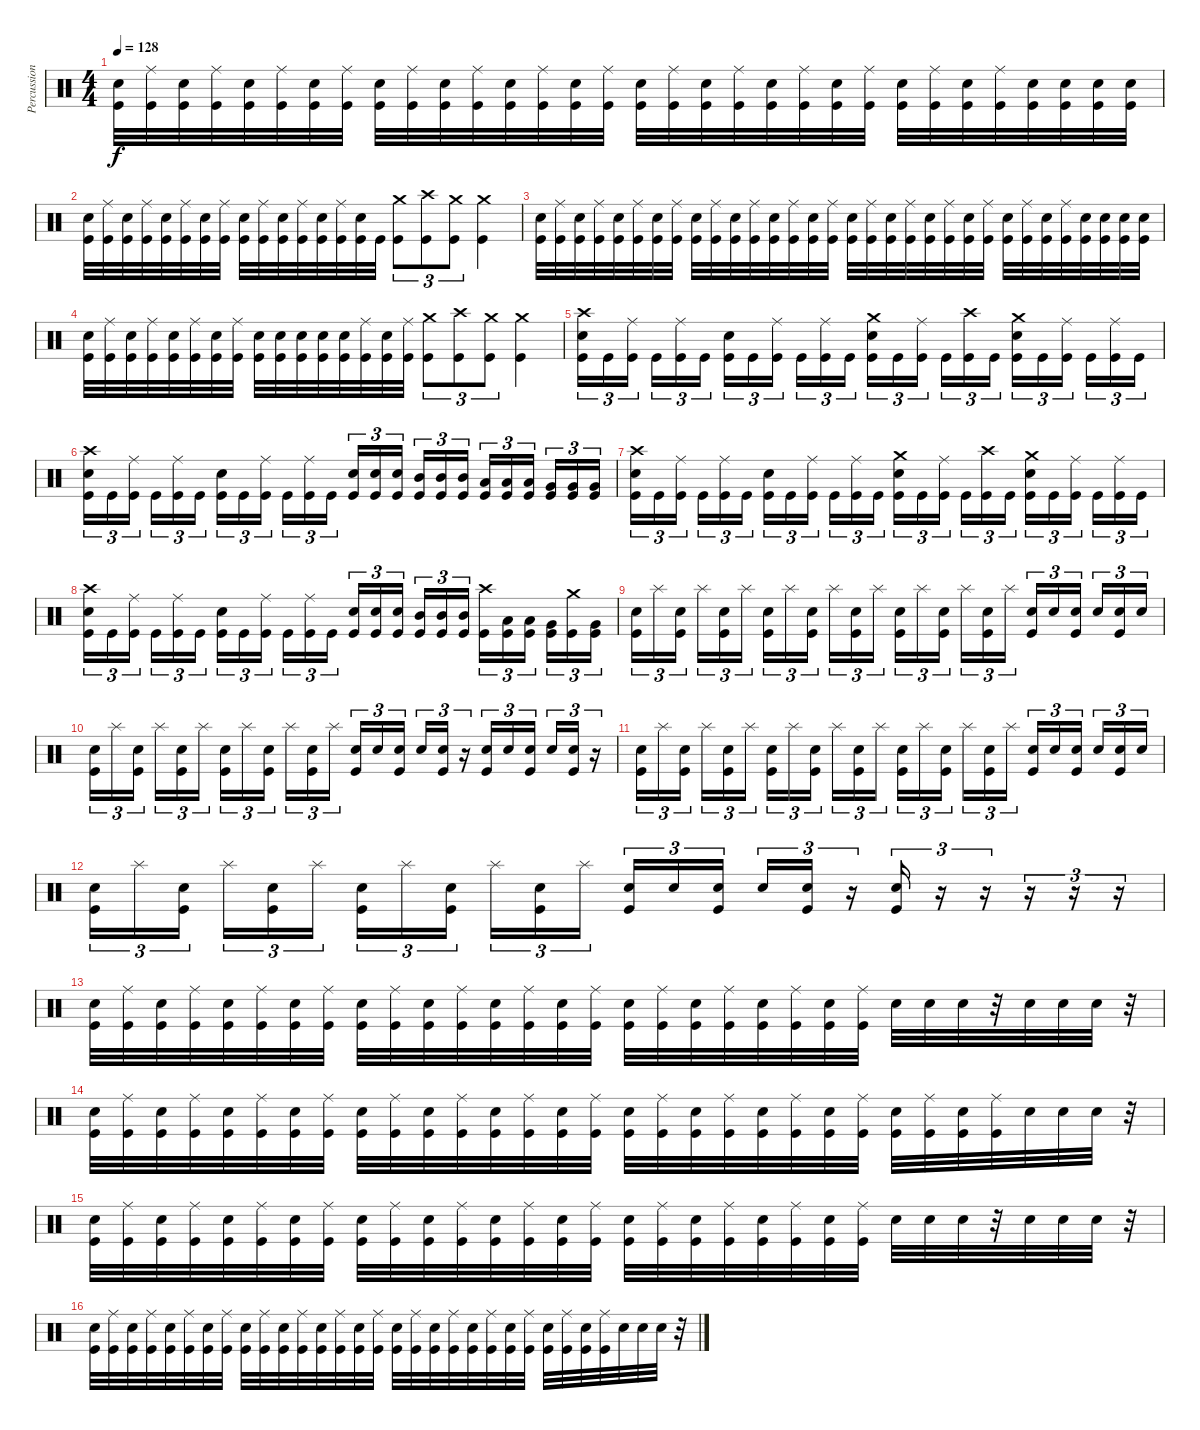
\track ("Percussion" "Percussion") {instrument percussion}
\staff {score}
\articulation defaults
\ts (4 4)
\tempo 128
\clef neutral
\ks c
("Electric Snare (hit)" "Kick (hit)").32{dy f} ("Ride (middle)" "Kick (hit)").32 ("Electric Snare (hit)" "Kick (hit)").32 ("Ride (middle)" "Kick (hit)").32 ("Electric Snare (hit)" "Kick (hit)").32 ("Ride (middle)" "Kick (hit)").32 ("Electric Snare (hit)" "Kick (hit)").32 ("Ride (middle)" "Kick (hit)").32 ("Electric Snare (hit)" "Kick (hit)").32 ("Ride (middle)" "Kick (hit)").32 ("Electric Snare (hit)" "Kick (hit)").32 ("Ride (middle)" "Kick (hit)").32 ("Electric Snare (hit)" "Kick (hit)").32 ("Ride (middle)" "Kick (hit)").32 ("Electric Snare (hit)" "Kick (hit)").32 ("Ride (middle)" "Kick (hit)").32 ("Electric Snare (hit)" "Kick (hit)").32 ("Ride (middle)" "Kick (hit)").32 ("Electric Snare (hit)" "Kick (hit)").32 ("Ride (middle)" "Kick (hit)").32 ("Electric Snare (hit)" "Kick (hit)").32 ("Ride (middle)" "Kick (hit)").32 ("Electric Snare (hit)" "Kick (hit)").32 ("Ride (middle)" "Kick (hit)").32 ("Electric Snare (hit)" "Kick (hit)").32 ("Ride (middle)" "Kick (hit)").32 ("Electric Snare (hit)" "Kick (hit)").32 ("Ride (middle)" "Kick (hit)").32 ("Electric Snare (hit)" "Kick (hit)").32 ("Electric Snare (hit)" "Kick (hit)").32 ("Electric Snare (hit)" "Kick (hit)").32 ("Electric Snare (hit)" "Kick (hit)").32 |
("Electric Snare (hit)" "Kick (hit)").32 ("Ride (middle)" "Kick (hit)").32 ("Electric Snare (hit)" "Kick (hit)").32 ("Ride (middle)" "Kick (hit)").32 ("Electric Snare (hit)" "Kick (hit)").32 ("Ride (middle)" "Kick (hit)").32 ("Electric Snare (hit)" "Kick (hit)").32 ("Ride (middle)" "Kick (hit)").32 ("Electric Snare (hit)" "Kick (hit)").32 ("Ride (middle)" "Kick (hit)").32 ("Electric Snare (hit)" "Kick (hit)").32 ("Ride (middle)" "Kick (hit)").32 ("Electric Snare (hit)" "Kick (hit)").32 ("Ride (middle)" "Kick (hit)").32 ("Electric Snare (hit)" "Kick (hit)").32 "Kick (hit)".32 ("Crash medium (hit)" "Kick (hit)").8{tu (3 2)} ("Crash high (hit)" "Kick (hit)").8{tu (3 2)} ("Crash medium (hit)" "Kick (hit)").8{tu (3 2)} ("Crash medium (hit)" "Kick (hit)").4 |
("Electric Snare (hit)" "Kick (hit)").32 ("Ride (middle)" "Kick (hit)").32 ("Electric Snare (hit)" "Kick (hit)").32 ("Ride (middle)" "Kick (hit)").32 ("Electric Snare (hit)" "Kick (hit)").32 ("Ride (middle)" "Kick (hit)").32 ("Electric Snare (hit)" "Kick (hit)").32 ("Ride (middle)" "Kick (hit)").32 ("Electric Snare (hit)" "Kick (hit)").32 ("Ride (middle)" "Kick (hit)").32 ("Electric Snare (hit)" "Kick (hit)").32 ("Ride (middle)" "Kick (hit)").32 ("Electric Snare (hit)" "Kick (hit)").32 ("Ride (middle)" "Kick (hit)").32 ("Electric Snare (hit)" "Kick (hit)").32 ("Ride (middle)" "Kick (hit)").32 ("Electric Snare (hit)" "Kick (hit)").32 ("Ride (middle)" "Kick (hit)").32 ("Electric Snare (hit)" "Kick (hit)").32 ("Ride (middle)" "Kick (hit)").32 ("Electric Snare (hit)" "Kick (hit)").32 ("Ride (middle)" "Kick (hit)").32 ("Electric Snare (hit)" "Kick (hit)").32 ("Ride (middle)" "Kick (hit)").32 ("Electric Snare (hit)" "Kick (hit)").32 ("Ride (middle)" "Kick (hit)").32 ("Electric Snare (hit)" "Kick (hit)").32 ("Ride (middle)" "Kick (hit)").32 ("Electric Snare (hit)" "Kick (hit)").32 ("Electric Snare (hit)" "Kick (hit)").32 ("Electric Snare (hit)" "Kick (hit)").32 ("Electric Snare (hit)" "Kick (hit)").32 |
("Electric Snare (hit)" "Kick (hit)").32 ("Ride (middle)" "Kick (hit)").32 ("Electric Snare (hit)" "Kick (hit)").32 ("Ride (middle)" "Kick (hit)").32 ("Electric Snare (hit)" "Kick (hit)").32 ("Ride (middle)" "Kick (hit)").32 ("Electric Snare (hit)" "Kick (hit)").32 ("Ride (middle)" "Kick (hit)").32 ("Electric Snare (hit)" "Kick (hit)").32 ("Electric Snare (hit)" "Kick (hit)").32 ("Electric Snare (hit)" "Kick (hit)").32 ("Electric Snare (hit)" "Kick (hit)").32 ("Electric Snare (hit)" "Kick (hit)").32 ("Ride (middle)" "Kick (hit)").32 ("Electric Snare (hit)" "Kick (hit)").32 ("Ride (middle)" "Kick (hit)").32 ("Crash medium (hit)" "Kick (hit)").8{tu (3 2)} ("Crash high (hit)" "Kick (hit)").8{tu (3 2)} ("Crash medium (hit)" "Kick (hit)").8{tu (3 2)} ("Crash medium (hit)" "Kick (hit)").4 |
("Crash high (hit)" "Electric Snare (hit)" "Kick (hit)").16{tu (3 2)} "Kick (hit)".16{tu (3 2)} ("Ride (middle)" "Kick (hit)").16{tu (3 2)} "Kick (hit)".16{tu (3 2)} ("Ride (middle)" "Kick (hit)").16{tu (3 2)} "Kick (hit)".16{tu (3 2)} ("Electric Snare (hit)" "Kick (hit)").16{tu (3 2)} "Kick (hit)".16{tu (3 2)} ("Ride (middle)" "Kick (hit)").16{tu (3 2)} "Kick (hit)".16{tu (3 2)} ("Ride (middle)" "Kick (hit)").16{tu (3 2)} "Kick (hit)".16{tu (3 2)} ("Crash medium (hit)" "Electric Snare (hit)" "Kick (hit)").16{tu (3 2)} "Kick (hit)".16{tu (3 2)} ("Ride (middle)" "Kick (hit)").16{tu (3 2)} "Kick (hit)".16{tu (3 2)} ("Crash high (hit)" "Kick (hit)").16{tu (3 2)} "Kick (hit)".16{tu (3 2)} ("Crash medium (hit)" "Electric Snare (hit)" "Kick (hit)").16{tu (3 2)} "Kick (hit)".16{tu (3 2)} ("Ride (middle)" "Kick (hit)").16{tu (3 2)} "Kick (hit)".16{tu (3 2)} ("Ride (middle)" "Kick (hit)").16{tu (3 2)} "Kick (hit)".16{tu (3 2)} |
("Crash high (hit)" "Electric Snare (hit)" "Kick (hit)").16{tu (3 2)} "Kick (hit)".16{tu (3 2)} ("Ride (middle)" "Kick (hit)").16{tu (3 2)} "Kick (hit)".16{tu (3 2)} ("Ride (middle)" "Kick (hit)").16{tu (3 2)} "Kick (hit)".16{tu (3 2)} ("Electric Snare (hit)" "Kick (hit)").16{tu (3 2)} "Kick (hit)".16{tu (3 2)} ("Ride (middle)" "Kick (hit)").16{tu (3 2)} "Kick (hit)".16{tu (3 2)} ("Ride (middle)" "Kick (hit)").16{tu (3 2)} "Kick (hit)".16{tu (3 2)} ("Electric Snare (hit)" "Kick (hit)").16{tu (3 2)} ("Electric Snare (hit)" "Kick (hit)").16{tu (3 2)} ("Electric Snare (hit)" "Kick (hit)").16{tu (3 2)} ("Mid Tom (hit)" "Kick (hit)").16{tu (3 2)} ("Mid Tom (hit)" "Kick (hit)").16{tu (3 2)} ("Mid Tom (hit)" "Kick (hit)").16{tu (3 2)} ("Low Tom (hit)" "Kick (hit)").16{tu (3 2)} ("Low Tom (hit)" "Kick (hit)").16{tu (3 2)} ("Low Tom (hit)" "Kick (hit)").16{tu (3 2)} ("Very Low Tom (hit)" "Kick (hit)").16{tu (3 2)} ("Very Low Tom (hit)" "Kick (hit)").16{tu (3 2)} ("Very Low Tom (hit)" "Kick (hit)").16{tu (3 2)} |
("Crash high (hit)" "Electric Snare (hit)" "Kick (hit)").16{tu (3 2)} "Kick (hit)".16{tu (3 2)} ("Ride (middle)" "Kick (hit)").16{tu (3 2)} "Kick (hit)".16{tu (3 2)} ("Ride (middle)" "Kick (hit)").16{tu (3 2)} "Kick (hit)".16{tu (3 2)} ("Electric Snare (hit)" "Kick (hit)").16{tu (3 2)} "Kick (hit)".16{tu (3 2)} ("Ride (middle)" "Kick (hit)").16{tu (3 2)} "Kick (hit)".16{tu (3 2)} ("Ride (middle)" "Kick (hit)").16{tu (3 2)} "Kick (hit)".16{tu (3 2)} ("Crash medium (hit)" "Electric Snare (hit)" "Kick (hit)").16{tu (3 2)} "Kick (hit)".16{tu (3 2)} ("Ride (middle)" "Kick (hit)").16{tu (3 2)} "Kick (hit)".16{tu (3 2)} ("Crash high (hit)" "Kick (hit)").16{tu (3 2)} "Kick (hit)".16{tu (3 2)} ("Crash medium (hit)" "Electric Snare (hit)" "Kick (hit)").16{tu (3 2)} "Kick (hit)".16{tu (3 2)} ("Ride (middle)" "Kick (hit)").16{tu (3 2)} "Kick (hit)".16{tu (3 2)} ("Ride (middle)" "Kick (hit)").16{tu (3 2)} "Kick (hit)".16{tu (3 2)} |
("Crash high (hit)" "Electric Snare (hit)" "Kick (hit)").16{tu (3 2)} "Kick (hit)".16{tu (3 2)} ("Ride (middle)" "Kick (hit)").16{tu (3 2)} "Kick (hit)".16{tu (3 2)} ("Ride (middle)" "Kick (hit)").16{tu (3 2)} "Kick (hit)".16{tu (3 2)} ("Electric Snare (hit)" "Kick (hit)").16{tu (3 2)} "Kick (hit)".16{tu (3 2)} ("Ride (middle)" "Kick (hit)").16{tu (3 2)} "Kick (hit)".16{tu (3 2)} ("Ride (middle)" "Kick (hit)").16{tu (3 2)} "Kick (hit)".16{tu (3 2)} ("Electric Snare (hit)" "Kick (hit)").16{tu (3 2)} ("Electric Snare (hit)" "Kick (hit)").16{tu (3 2)} ("Electric Snare (hit)" "Kick (hit)").16{tu (3 2)} ("Mid Tom (hit)" "Kick (hit)").16{tu (3 2)} ("Mid Tom (hit)" "Kick (hit)").16{tu (3 2)} ("Mid Tom (hit)" "Kick (hit)").16{tu (3 2)} ("Crash high (hit)" "Kick (hit)").16{tu (3 2)} ("Low Tom (hit)" "Kick (hit)").16{tu (3 2)} ("Low Tom (hit)" "Kick (hit)").16{tu (3 2)} ("Very Low Tom (hit)" "Kick (hit)").16{tu (3 2)} ("Crash medium (hit)" "Kick (hit)").16{tu (3 2)} ("Very Low Tom (hit)" "Kick (hit)").16{tu (3 2)} |
("Electric Snare (hit)" "Kick (hit)").16{tu (3 2)} "Splash (hit)".16{tu (3 2)} ("Electric Snare (hit)" "Kick (hit)").16{tu (3 2)} "Splash (hit)".16{tu (3 2)} ("Electric Snare (hit)" "Kick (hit)").16{tu (3 2)} "Splash (hit)".16{tu (3 2)} ("Electric Snare (hit)" "Kick (hit)").16{tu (3 2)} "Splash (hit)".16{tu (3 2)} ("Electric Snare (hit)" "Kick (hit)").16{tu (3 2)} "Splash (hit)".16{tu (3 2)} ("Electric Snare (hit)" "Kick (hit)").16{tu (3 2)} "Splash (hit)".16{tu (3 2)} ("Electric Snare (hit)" "Kick (hit)").16{tu (3 2)} "Splash (hit)".16{tu (3 2)} ("Electric Snare (hit)" "Kick (hit)").16{tu (3 2)} "Splash (hit)".16{tu (3 2)} ("Electric Snare (hit)" "Kick (hit)").16{tu (3 2)} "Splash (hit)".16{tu (3 2)} ("Electric Snare (hit)" "Kick (hit)").16{tu (3 2)} "Electric Snare (hit)".16{tu (3 2)} ("Electric Snare (hit)" "Kick (hit)").16{tu (3 2)} "Electric Snare (hit)".16{tu (3 2)} ("Electric Snare (hit)" "Kick (hit)").16{tu (3 2)} "Electric Snare (hit)".16{tu (3 2)} |
("Electric Snare (hit)" "Kick (hit)").16{tu (3 2)} "Splash (hit)".16{tu (3 2)} ("Electric Snare (hit)" "Kick (hit)").16{tu (3 2)} "Splash (hit)".16{tu (3 2)} ("Electric Snare (hit)" "Kick (hit)").16{tu (3 2)} "Splash (hit)".16{tu (3 2)} ("Electric Snare (hit)" "Kick (hit)").16{tu (3 2)} "Splash (hit)".16{tu (3 2)} ("Electric Snare (hit)" "Kick (hit)").16{tu (3 2)} "Splash (hit)".16{tu (3 2)} ("Electric Snare (hit)" "Kick (hit)").16{tu (3 2)} "Splash (hit)".16{tu (3 2)} ("Electric Snare (hit)" "Kick (hit)").16{tu (3 2)} "Electric Snare (hit)".16{tu (3 2)} ("Electric Snare (hit)" "Kick (hit)").16{tu (3 2)} "Electric Snare (hit)".16{tu (3 2)} ("Electric Snare (hit)" "Kick (hit)").16{tu (3 2)} r.16{tu (3 2)} ("Electric Snare (hit)" "Kick (hit)").16{tu (3 2)} "Electric Snare (hit)".16{tu (3 2)} ("Electric Snare (hit)" "Kick (hit)").16{tu (3 2)} "Electric Snare (hit)".16{tu (3 2)} ("Electric Snare (hit)" "Kick (hit)").16{tu (3 2)} r.16{tu (3 2)} |
("Electric Snare (hit)" "Kick (hit)").16{tu (3 2)} "Splash (hit)".16{tu (3 2)} ("Electric Snare (hit)" "Kick (hit)").16{tu (3 2)} "Splash (hit)".16{tu (3 2)} ("Electric Snare (hit)" "Kick (hit)").16{tu (3 2)} "Splash (hit)".16{tu (3 2)} ("Electric Snare (hit)" "Kick (hit)").16{tu (3 2)} "Splash (hit)".16{tu (3 2)} ("Electric Snare (hit)" "Kick (hit)").16{tu (3 2)} "Splash (hit)".16{tu (3 2)} ("Electric Snare (hit)" "Kick (hit)").16{tu (3 2)} "Splash (hit)".16{tu (3 2)} ("Electric Snare (hit)" "Kick (hit)").16{tu (3 2)} "Splash (hit)".16{tu (3 2)} ("Electric Snare (hit)" "Kick (hit)").16{tu (3 2)} "Splash (hit)".16{tu (3 2)} ("Electric Snare (hit)" "Kick (hit)").16{tu (3 2)} "Splash (hit)".16{tu (3 2)} ("Electric Snare (hit)" "Kick (hit)").16{tu (3 2)} "Electric Snare (hit)".16{tu (3 2)} ("Electric Snare (hit)" "Kick (hit)").16{tu (3 2)} "Electric Snare (hit)".16{tu (3 2)} ("Electric Snare (hit)" "Kick (hit)").16{tu (3 2)} "Electric Snare (hit)".16{tu (3 2)} |
("Electric Snare (hit)" "Kick (hit)").16{tu (3 2)} "Splash (hit)".16{tu (3 2)} ("Electric Snare (hit)" "Kick (hit)").16{tu (3 2)} "Splash (hit)".16{tu (3 2)} ("Electric Snare (hit)" "Kick (hit)").16{tu (3 2)} "Splash (hit)".16{tu (3 2)} ("Electric Snare (hit)" "Kick (hit)").16{tu (3 2)} "Splash (hit)".16{tu (3 2)} ("Electric Snare (hit)" "Kick (hit)").16{tu (3 2)} "Splash (hit)".16{tu (3 2)} ("Electric Snare (hit)" "Kick (hit)").16{tu (3 2)} "Splash (hit)".16{tu (3 2)} ("Electric Snare (hit)" "Kick (hit)").16{tu (3 2)} "Electric Snare (hit)".16{tu (3 2)} ("Electric Snare (hit)" "Kick (hit)").16{tu (3 2)} "Electric Snare (hit)".16{tu (3 2)} ("Electric Snare (hit)" "Kick (hit)").16{tu (3 2)} r.16{tu (3 2)} ("Electric Snare (hit)" "Kick (hit)").16{tu (3 2)} r.16{tu (3 2)} r.16{tu (3 2)} r.16{tu (3 2)} r.16{tu (3 2)} r.16{tu (3 2)} |
("Electric Snare (hit)" "Kick (hit)").32 ("Ride (middle)" "Kick (hit)").32 ("Electric Snare (hit)" "Kick (hit)").32 ("Ride (middle)" "Kick (hit)").32 ("Electric Snare (hit)" "Kick (hit)").32 ("Ride (middle)" "Kick (hit)").32 ("Electric Snare (hit)" "Kick (hit)").32 ("Ride (middle)" "Kick (hit)").32 ("Electric Snare (hit)" "Kick (hit)").32 ("Ride (middle)" "Kick (hit)").32 ("Electric Snare (hit)" "Kick (hit)").32 ("Ride (middle)" "Kick (hit)").32 ("Electric Snare (hit)" "Kick (hit)").32 ("Ride (middle)" "Kick (hit)").32 ("Electric Snare (hit)" "Kick (hit)").32 ("Ride (middle)" "Kick (hit)").32 ("Electric Snare (hit)" "Kick (hit)").32 ("Ride (middle)" "Kick (hit)").32 ("Electric Snare (hit)" "Kick (hit)").32 ("Ride (middle)" "Kick (hit)").32 ("Electric Snare (hit)" "Kick (hit)").32 ("Ride (middle)" "Kick (hit)").32 ("Electric Snare (hit)" "Kick (hit)").32 ("Ride (middle)" "Kick (hit)").32 "Electric Snare (hit)".32 "Electric Snare (hit)".32 "Electric Snare (hit)".32 r.32 "Electric Snare (hit)".32 "Electric Snare (hit)".32 "Electric Snare (hit)".32 r.32 |
("Electric Snare (hit)" "Kick (hit)").32 ("Ride (middle)" "Kick (hit)").32 ("Electric Snare (hit)" "Kick (hit)").32 ("Ride (middle)" "Kick (hit)").32 ("Electric Snare (hit)" "Kick (hit)").32 ("Ride (middle)" "Kick (hit)").32 ("Electric Snare (hit)" "Kick (hit)").32 ("Ride (middle)" "Kick (hit)").32 ("Electric Snare (hit)" "Kick (hit)").32 ("Ride (middle)" "Kick (hit)").32 ("Electric Snare (hit)" "Kick (hit)").32 ("Ride (middle)" "Kick (hit)").32 ("Electric Snare (hit)" "Kick (hit)").32 ("Ride (middle)" "Kick (hit)").32 ("Electric Snare (hit)" "Kick (hit)").32 ("Ride (middle)" "Kick (hit)").32 ("Electric Snare (hit)" "Kick (hit)").32 ("Ride (middle)" "Kick (hit)").32 ("Electric Snare (hit)" "Kick (hit)").32 ("Ride (middle)" "Kick (hit)").32 ("Electric Snare (hit)" "Kick (hit)").32 ("Ride (middle)" "Kick (hit)").32 ("Electric Snare (hit)" "Kick (hit)").32 ("Ride (middle)" "Kick (hit)").32 ("Electric Snare (hit)" "Kick (hit)").32 ("Ride (middle)" "Kick (hit)").32 ("Electric Snare (hit)" "Kick (hit)").32 ("Ride (middle)" "Kick (hit)").32 "Electric Snare (hit)".32 "Electric Snare (hit)".32 "Electric Snare (hit)".32 r.32 |
("Electric Snare (hit)" "Kick (hit)").32 ("Ride (middle)" "Kick (hit)").32 ("Electric Snare (hit)" "Kick (hit)").32 ("Ride (middle)" "Kick (hit)").32 ("Electric Snare (hit)" "Kick (hit)").32 ("Ride (middle)" "Kick (hit)").32 ("Electric Snare (hit)" "Kick (hit)").32 ("Ride (middle)" "Kick (hit)").32 ("Electric Snare (hit)" "Kick (hit)").32 ("Ride (middle)" "Kick (hit)").32 ("Electric Snare (hit)" "Kick (hit)").32 ("Ride (middle)" "Kick (hit)").32 ("Electric Snare (hit)" "Kick (hit)").32 ("Ride (middle)" "Kick (hit)").32 ("Electric Snare (hit)" "Kick (hit)").32 ("Ride (middle)" "Kick (hit)").32 ("Electric Snare (hit)" "Kick (hit)").32 ("Ride (middle)" "Kick (hit)").32 ("Electric Snare (hit)" "Kick (hit)").32 ("Ride (middle)" "Kick (hit)").32 ("Electric Snare (hit)" "Kick (hit)").32 ("Ride (middle)" "Kick (hit)").32 ("Electric Snare (hit)" "Kick (hit)").32 ("Ride (middle)" "Kick (hit)").32 "Electric Snare (hit)".32 "Electric Snare (hit)".32 "Electric Snare (hit)".32 r.32 "Electric Snare (hit)".32 "Electric Snare (hit)".32 "Electric Snare (hit)".32 r.32 |
("Electric Snare (hit)" "Kick (hit)").32 ("Ride (middle)" "Kick (hit)").32 ("Electric Snare (hit)" "Kick (hit)").32 ("Ride (middle)" "Kick (hit)").32 ("Electric Snare (hit)" "Kick (hit)").32 ("Ride (middle)" "Kick (hit)").32 ("Electric Snare (hit)" "Kick (hit)").32 ("Ride (middle)" "Kick (hit)").32 ("Electric Snare (hit)" "Kick (hit)").32 ("Ride (middle)" "Kick (hit)").32 ("Electric Snare (hit)" "Kick (hit)").32 ("Ride (middle)" "Kick (hit)").32 ("Electric Snare (hit)" "Kick (hit)").32 ("Ride (middle)" "Kick (hit)").32 ("Electric Snare (hit)" "Kick (hit)").32 ("Ride (middle)" "Kick (hit)").32 ("Electric Snare (hit)" "Kick (hit)").32 ("Ride (middle)" "Kick (hit)").32 ("Electric Snare (hit)" "Kick (hit)").32 ("Ride (middle)" "Kick (hit)").32 ("Electric Snare (hit)" "Kick (hit)").32 ("Ride (middle)" "Kick (hit)").32 ("Electric Snare (hit)" "Kick (hit)").32 ("Ride (middle)" "Kick (hit)").32 ("Electric Snare (hit)" "Kick (hit)").32 ("Ride (middle)" "Kick (hit)").32 ("Electric Snare (hit)" "Kick (hit)").32 ("Ride (middle)" "Kick (hit)").32 "Electric Snare (hit)".32 "Electric Snare (hit)".32 "Electric Snare (hit)".32 r.32
